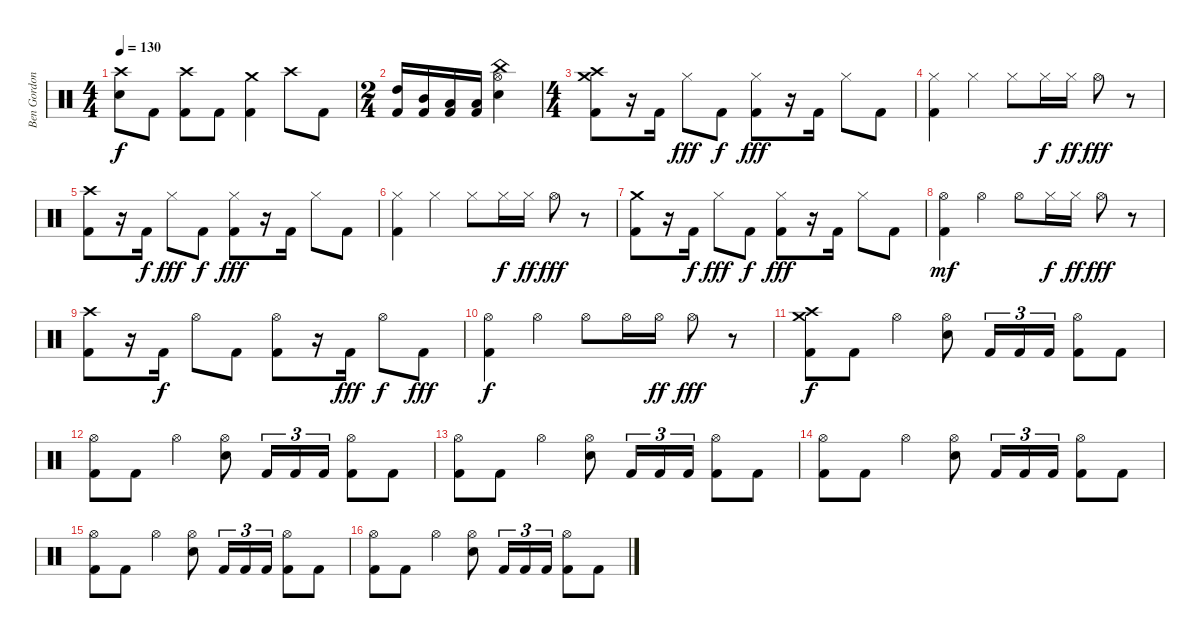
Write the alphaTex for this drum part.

\track ("Ben Gordon" "Ben Gordon") {instrument percussion}
\staff {score}
\articulation defaults
\ts (4 4)
\tempo 130
\clef neutral
\ks c
("Crash high (hit)" "Snare (hit) 2").8{dy f} "Kick (hit) 2".8 ("Crash high (hit)" "Kick (hit) 2").8 "Kick (hit) 2".8 ("Crash medium (hit)" "Kick (hit) 2").4 "Crash high (hit)".8 "Kick (hit) 2".8 |
\ts (2 4)
("High Tom (hit)" "Kick (hit) 2").16 ("Mid Tom (hit)" "Kick (hit) 2").16 ("Low Tom (hit)" "Kick (hit) 2").16 ("Low Tom (hit)" "Kick (hit) 2").16 ("China (hit)" "Hi-Hat (open)" "Snare (hit) 2").4 |
\ts (4 4)
("Crash medium (hit)" "Crash high (hit)" "Kick (hit) 2").8 r.16 "Kick (hit) 2".16 "Hi-Hat (closed)".8{dy fff} "Kick (hit) 2".8{dy f} ("Hi-Hat (closed)" "Kick (hit) 2").8{dy fff} r.16 "Kick (hit) 2".16 "Hi-Hat (closed)".8 "Kick (hit) 2".8 |
("Hi-Hat (closed)" "Kick (hit) 2").4 "Hi-Hat (closed)".4 "Hi-Hat (closed)".8 "Hi-Hat (closed)".16{dy f} "Hi-Hat (closed)".16{dy ff} "Hi-Hat (open)".8{dy fff} r.8 |
("Crash high (hit)" "Kick (hit) 2").8 r.16 "Kick (hit) 2".16{dy f} "Hi-Hat (closed)".8{dy fff} "Kick (hit) 2".8{dy f} ("Hi-Hat (closed)" "Kick (hit) 2").8{dy fff} r.16 "Kick (hit) 2".16 "Hi-Hat (closed)".8 "Kick (hit) 2".8 |
("Hi-Hat (closed)" "Kick (hit) 2").4 "Hi-Hat (closed)".4 "Hi-Hat (closed)".8 "Hi-Hat (closed)".16{dy f} "Hi-Hat (closed)".16{dy ff} "Hi-Hat (open)".8{dy fff} r.8 |
("Crash medium (hit)" "Kick (hit) 2").8 r.16 "Kick (hit) 2".16{dy f} "Hi-Hat (closed)".8{dy fff} "Kick (hit) 2".8{dy f} ("Hi-Hat (closed)" "Kick (hit) 2").8{dy fff} r.16 "Kick (hit) 2".16 "Hi-Hat (closed)".8 "Kick (hit) 2".8 |
("Hi-Hat (open)" "Kick (hit) 2").4{dy mf} "Hi-Hat (open)".4 "Hi-Hat (open)".8 "Hi-Hat (closed)".16{dy f} "Hi-Hat (closed)".16{dy ff} "Hi-Hat (open)".8{dy fff} r.8 |
("Crash high (hit)" "Kick (hit) 2").8 r.16 "Kick (hit) 2".16{dy f} "Hi-Hat (open)".8 "Kick (hit) 2".8 ("Hi-Hat (open)" "Kick (hit) 2").8 r.16 "Kick (hit) 2".16{dy fff} "Hi-Hat (open)".8{dy f} "Kick (hit) 2".8{dy fff} |
("Hi-Hat (open)" "Kick (hit) 2").4{dy f} "Hi-Hat (open)".4 "Hi-Hat (open)".8 "Hi-Hat (open)".16 "Hi-Hat (open)".16{dy ff} "Hi-Hat (open)".8{dy fff} r.8 |
("Crash medium (hit)" "Crash high (hit)" "Kick (hit) 2").8{dy f} "Kick (hit) 2".8 "Hi-Hat (open)".4 ("Hi-Hat (open)" "Snare (hit) 2").8 "Kick (hit) 2".16{tu (3 2)} "Kick (hit) 2".16{tu (3 2)} "Kick (hit) 2".16{tu (3 2)} ("Hi-Hat (open)" "Kick (hit) 2").8 "Kick (hit) 2".8 |
("Hi-Hat (open)" "Kick (hit) 2").8 "Kick (hit) 2".8 "Hi-Hat (open)".4 ("Hi-Hat (open)" "Snare (hit) 2").8 "Kick (hit) 2".16{tu (3 2)} "Kick (hit) 2".16{tu (3 2)} "Kick (hit) 2".16{tu (3 2)} ("Hi-Hat (open)" "Kick (hit) 2").8 "Kick (hit) 2".8 |
("Hi-Hat (open)" "Kick (hit) 2").8 "Kick (hit) 2".8 "Hi-Hat (open)".4 ("Hi-Hat (open)" "Snare (hit) 2").8 "Kick (hit) 2".16{tu (3 2)} "Kick (hit) 2".16{tu (3 2)} "Kick (hit) 2".16{tu (3 2)} ("Hi-Hat (open)" "Kick (hit) 2").8 "Kick (hit) 2".8 |
("Hi-Hat (open)" "Kick (hit) 2").8 "Kick (hit) 2".8 "Hi-Hat (open)".4 ("Hi-Hat (open)" "Snare (hit) 2").8 "Kick (hit) 2".16{tu (3 2)} "Kick (hit) 2".16{tu (3 2)} "Kick (hit) 2".16{tu (3 2)} ("Hi-Hat (open)" "Kick (hit) 2").8 "Kick (hit) 2".8 |
("Hi-Hat (open)" "Kick (hit) 2").8 "Kick (hit) 2".8 "Hi-Hat (open)".4 ("Hi-Hat (open)" "Snare (hit) 2").8 "Kick (hit) 2".16{tu (3 2)} "Kick (hit) 2".16{tu (3 2)} "Kick (hit) 2".16{tu (3 2)} ("Hi-Hat (open)" "Kick (hit) 2").8 "Kick (hit) 2".8 |
("Hi-Hat (open)" "Kick (hit) 2").8 "Kick (hit) 2".8 "Hi-Hat (open)".4 ("Hi-Hat (open)" "Snare (hit) 2").8 "Kick (hit) 2".16{tu (3 2)} "Kick (hit) 2".16{tu (3 2)} "Kick (hit) 2".16{tu (3 2)} ("Hi-Hat (open)" "Kick (hit) 2").8 "Kick (hit) 2".8
